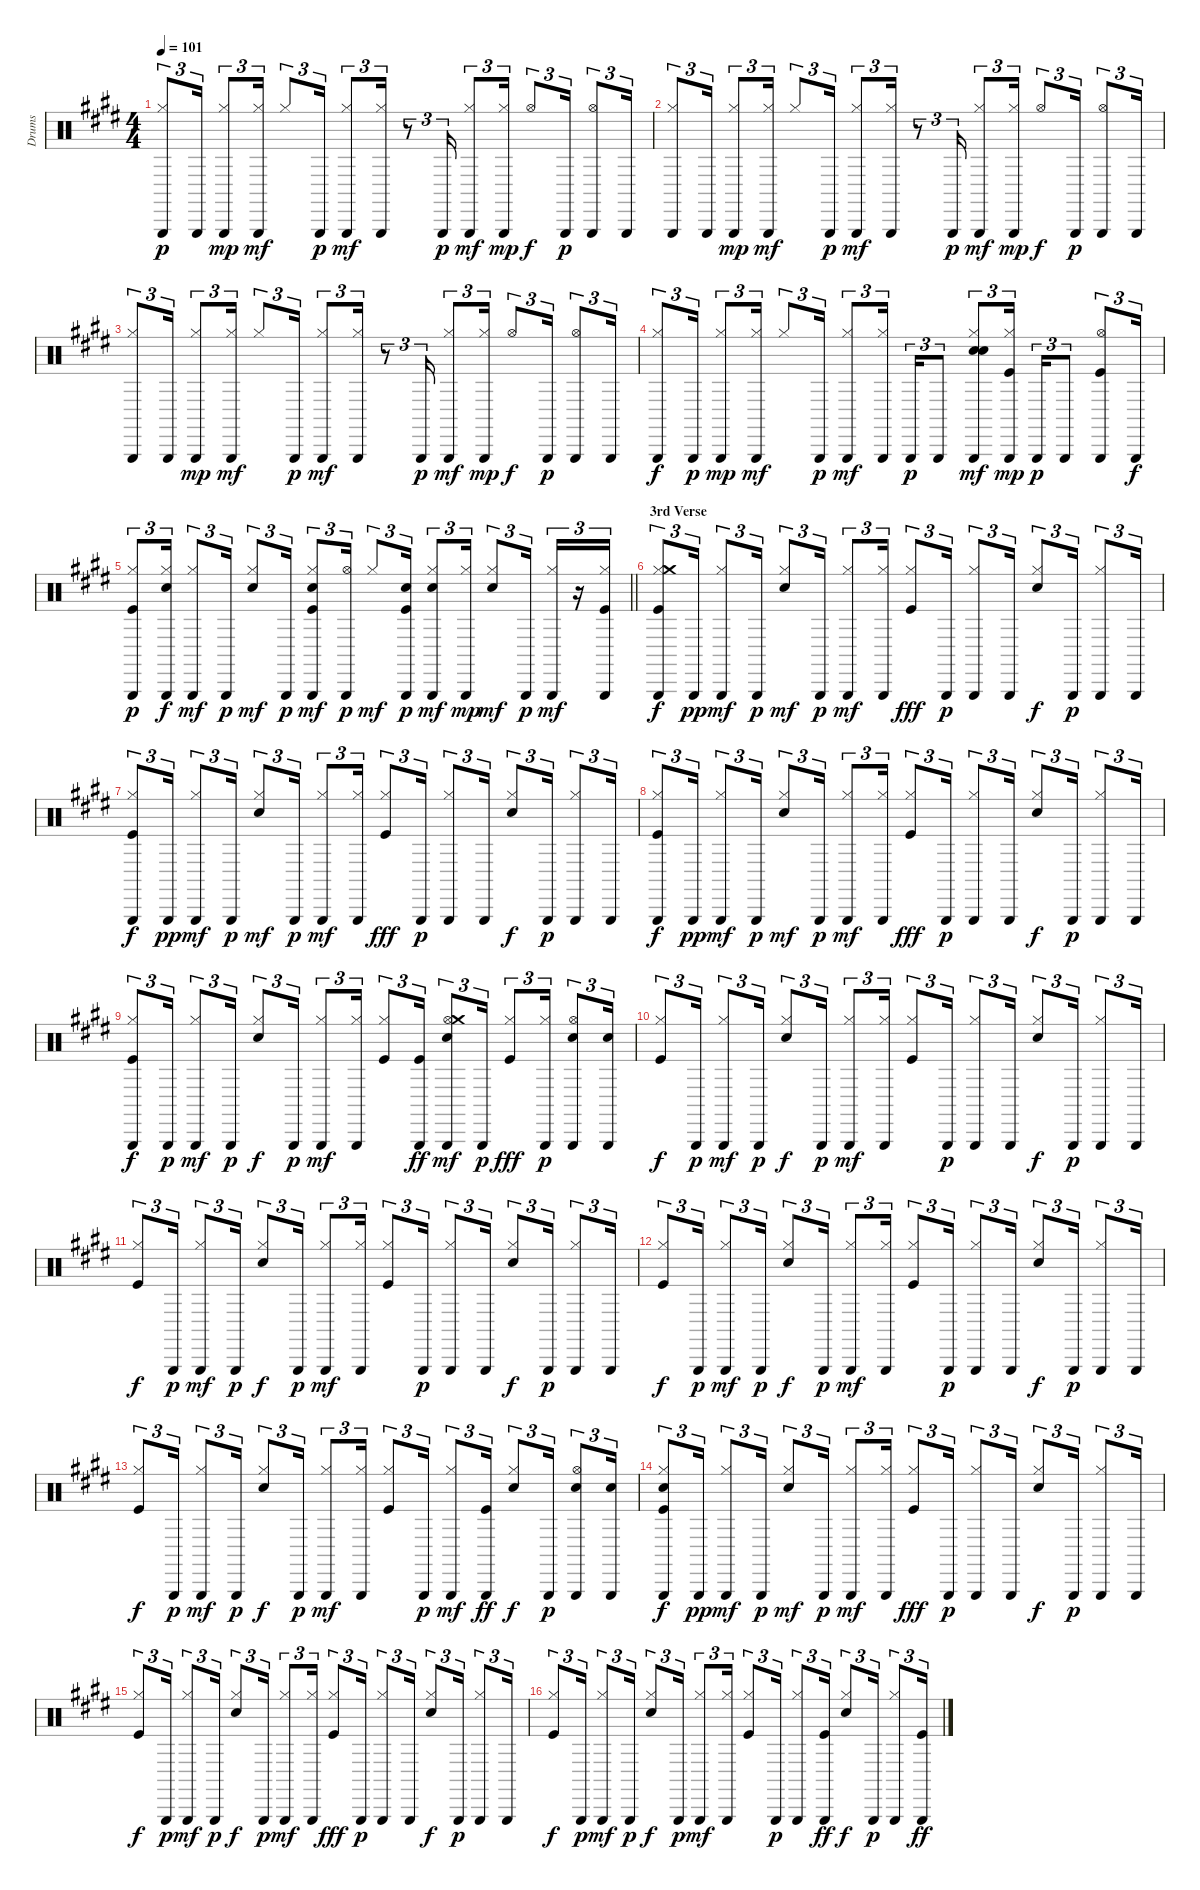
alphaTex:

\track ("Drums" "Drums") {instrument percussion}
\staff {score}
\articulation defaults
\ts (4 4)
\tempo 101
\clef neutral
\ks e
("Triangle (hit)" "Hi-Hat (closed)").8{tu (3 2) dy p} "Triangle (hit)".16{tu (3 2)} ("Triangle (hit)" "Hi-Hat (closed)").8{tu (3 2) dy mp} ("Triangle (hit)" "Hi-Hat (closed)").16{tu (3 2) dy mf} "Hi-Hat (closed)".8{tu (3 2)} "Triangle (hit)".16{tu (3 2) dy p} ("Triangle (hit)" "Hi-Hat (closed)").8{tu (3 2) dy mf} ("Triangle (hit)" "Hi-Hat (closed)").16{tu (3 2)} r.8{tu (3 2)} "Triangle (hit)".16{tu (3 2) dy p} ("Triangle (hit)" "Hi-Hat (closed)").8{tu (3 2) dy mf} ("Triangle (hit)" "Hi-Hat (closed)").16{tu (3 2) dy mp} "Hi-Hat (open)".8{tu (3 2) dy f} "Triangle (hit)".16{tu (3 2) dy p} ("Hi-Hat (open)" "Triangle (hit)").8{tu (3 2)} "Triangle (hit)".16{tu (3 2)} |
("Triangle (hit)" "Hi-Hat (closed)").8{tu (3 2)} "Triangle (hit)".16{tu (3 2)} ("Triangle (hit)" "Hi-Hat (closed)").8{tu (3 2) dy mp} ("Triangle (hit)" "Hi-Hat (closed)").16{tu (3 2) dy mf} "Hi-Hat (closed)".8{tu (3 2)} "Triangle (hit)".16{tu (3 2) dy p} ("Triangle (hit)" "Hi-Hat (closed)").8{tu (3 2) dy mf} ("Triangle (hit)" "Hi-Hat (closed)").16{tu (3 2)} r.8{tu (3 2)} "Triangle (hit)".16{tu (3 2) dy p} ("Triangle (hit)" "Hi-Hat (closed)").8{tu (3 2) dy mf} ("Triangle (hit)" "Hi-Hat (closed)").16{tu (3 2) dy mp} "Hi-Hat (open)".8{tu (3 2) dy f} "Triangle (hit)".16{tu (3 2) dy p} ("Hi-Hat (open)" "Triangle (hit)").8{tu (3 2)} "Triangle (hit)".16{tu (3 2)} |
("Triangle (hit)" "Hi-Hat (closed)").8{tu (3 2)} "Triangle (hit)".16{tu (3 2)} ("Triangle (hit)" "Hi-Hat (closed)").8{tu (3 2) dy mp} ("Triangle (hit)" "Hi-Hat (closed)").16{tu (3 2) dy mf} "Hi-Hat (closed)".8{tu (3 2)} "Triangle (hit)".16{tu (3 2) dy p} ("Triangle (hit)" "Hi-Hat (closed)").8{tu (3 2) dy mf} ("Triangle (hit)" "Hi-Hat (closed)").16{tu (3 2)} r.8{tu (3 2)} "Triangle (hit)".16{tu (3 2) dy p} ("Triangle (hit)" "Hi-Hat (closed)").8{tu (3 2) dy mf} ("Triangle (hit)" "Hi-Hat (closed)").16{tu (3 2) dy mp} "Hi-Hat (open)".8{tu (3 2) dy f} "Triangle (hit)".16{tu (3 2) dy p} ("Hi-Hat (open)" "Triangle (hit)").8{tu (3 2)} "Triangle (hit)".16{tu (3 2)} |
("Triangle (hit)" "Hi-Hat (closed)").8{tu (3 2) dy f} "Triangle (hit)".16{tu (3 2) dy p} ("Triangle (hit)" "Hi-Hat (closed)").8{tu (3 2) dy mp} ("Triangle (hit)" "Hi-Hat (closed)").16{tu (3 2) dy mf} "Hi-Hat (closed)".8{tu (3 2)} "Triangle (hit)".16{tu (3 2) dy p} ("Triangle (hit)" "Hi-Hat (closed)").8{tu (3 2) dy mf} ("Triangle (hit)" "Hi-Hat (closed)").16{tu (3 2)} "Triangle (hit)".16{tu (3 2) dy p} "Triangle (hit)".8{tu (3 2)} ("Electric Snare (hit)" "Electric Snare (hit)" "Triangle (hit)" "Hi-Hat (closed)").8{tu (3 2) dy mf} ("Kick (hit)" "Triangle (hit)" "Hi-Hat (closed)").16{tu (3 2) dy mp} "Triangle (hit)".16{tu (3 2) dy p} "Triangle (hit)".8{tu (3 2)} ("Hi-Hat (open)" "Triangle (hit)" "Kick (hit)").8{tu (3 2)} "Triangle (hit)".16{tu (3 2) dy f} |
\barLineRight lightlight
("Triangle (hit)" "Hi-Hat (closed)" "Kick (hit)").8{tu (3 2) dy p} ("Triangle (hit)" "Hi-Hat (closed)" "Electric Snare (hit)").16{tu (3 2) dy f} ("Triangle (hit)" "Hi-Hat (closed)").8{tu (3 2) dy mf} "Triangle (hit)".16{tu (3 2) dy p} ("Electric Snare (hit)" "Hi-Hat (closed)").8{tu (3 2) dy mf} "Triangle (hit)".16{tu (3 2) dy p} ("Electric Snare (hit)" "Triangle (hit)" "Kick (hit)" "Hi-Hat (closed)").8{tu (3 2) dy mf} ("Hi-Hat (open)" "Triangle (hit)").16{tu (3 2) dy p} "Hi-Hat (closed)".8{tu (3 2) dy mf} ("Electric Snare (hit)" "Triangle (hit)" "Kick (hit)").16{tu (3 2) dy p} ("Electric Snare (hit)" "Triangle (hit)" "Hi-Hat (closed)").8{tu (3 2) dy mf} ("Triangle (hit)" "Hi-Hat (closed)").16{tu (3 2) dy mp} ("Electric Snare (hit)" "Hi-Hat (closed)").8{tu (3 2) dy mf} "Triangle (hit)".16{tu (3 2) dy p} ("Triangle (hit)" "Hi-Hat (closed)").16{tu (3 2) dy mf} r.16{tu (3 2)} ("Triangle (hit)" "Kick (hit)" "Hi-Hat (closed)").16{tu (3 2)} |
\section ("" "3rd Verse")
("Triangle (hit)" "Kick (hit)" "Hi-Hat (closed)" "Crash medium (hit)").8{tu (3 2) dy f} "Triangle (hit)".16{tu (3 2) dy pp} ("Triangle (hit)" "Hi-Hat (closed)").8{tu (3 2) dy mf} "Triangle (hit)".16{tu (3 2) dy p} ("Electric Snare (hit)" "Hi-Hat (closed)").8{tu (3 2) dy mf} "Triangle (hit)".16{tu (3 2) dy p} ("Triangle (hit)" "Hi-Hat (closed)").8{tu (3 2) dy mf} ("Triangle (hit)" "Hi-Hat (closed)").16{tu (3 2)} ("Kick (hit)" "Hi-Hat (closed)").8{tu (3 2) dy fff} "Triangle (hit)".16{tu (3 2) dy p} ("Triangle (hit)" "Hi-Hat (closed)").8{tu (3 2)} "Triangle (hit)".16{tu (3 2)} ("Electric Snare (hit)" "Hi-Hat (closed)").8{tu (3 2) dy f} "Triangle (hit)".16{tu (3 2) dy p} ("Triangle (hit)" "Hi-Hat (closed)").8{tu (3 2)} "Triangle (hit)".16{tu (3 2)} |
("Triangle (hit)" "Kick (hit)" "Hi-Hat (closed)").8{tu (3 2) dy f} "Triangle (hit)".16{tu (3 2) dy pp} ("Triangle (hit)" "Hi-Hat (closed)").8{tu (3 2) dy mf} "Triangle (hit)".16{tu (3 2) dy p} ("Electric Snare (hit)" "Hi-Hat (closed)").8{tu (3 2) dy mf} "Triangle (hit)".16{tu (3 2) dy p} ("Triangle (hit)" "Hi-Hat (closed)").8{tu (3 2) dy mf} ("Triangle (hit)" "Hi-Hat (closed)").16{tu (3 2)} ("Kick (hit)" "Hi-Hat (closed)").8{tu (3 2) dy fff} "Triangle (hit)".16{tu (3 2) dy p} ("Triangle (hit)" "Hi-Hat (closed)").8{tu (3 2)} "Triangle (hit)".16{tu (3 2)} ("Electric Snare (hit)" "Hi-Hat (closed)").8{tu (3 2) dy f} "Triangle (hit)".16{tu (3 2) dy p} ("Triangle (hit)" "Hi-Hat (closed)").8{tu (3 2)} "Triangle (hit)".16{tu (3 2)} |
("Triangle (hit)" "Kick (hit)" "Hi-Hat (closed)").8{tu (3 2) dy f} "Triangle (hit)".16{tu (3 2) dy pp} ("Triangle (hit)" "Hi-Hat (closed)").8{tu (3 2) dy mf} "Triangle (hit)".16{tu (3 2) dy p} ("Electric Snare (hit)" "Hi-Hat (closed)").8{tu (3 2) dy mf} "Triangle (hit)".16{tu (3 2) dy p} ("Triangle (hit)" "Hi-Hat (closed)").8{tu (3 2) dy mf} ("Triangle (hit)" "Hi-Hat (closed)").16{tu (3 2)} ("Kick (hit)" "Hi-Hat (closed)").8{tu (3 2) dy fff} "Triangle (hit)".16{tu (3 2) dy p} ("Triangle (hit)" "Hi-Hat (closed)").8{tu (3 2)} "Triangle (hit)".16{tu (3 2)} ("Electric Snare (hit)" "Hi-Hat (closed)").8{tu (3 2) dy f} "Triangle (hit)".16{tu (3 2) dy p} ("Triangle (hit)" "Hi-Hat (closed)").8{tu (3 2)} "Triangle (hit)".16{tu (3 2)} |
("Triangle (hit)" "Kick (hit)" "Hi-Hat (closed)").8{tu (3 2) dy f} "Triangle (hit)".16{tu (3 2) dy p} ("Triangle (hit)" "Hi-Hat (closed)").8{tu (3 2) dy mf} "Triangle (hit)".16{tu (3 2) dy p} ("Electric Snare (hit)" "Hi-Hat (closed)").8{tu (3 2) dy f} "Triangle (hit)".16{tu (3 2) dy p} ("Triangle (hit)" "Hi-Hat (closed)").8{tu (3 2) dy mf} ("Triangle (hit)" "Hi-Hat (closed)").16{tu (3 2)} ("Kick (hit)" "Hi-Hat (closed)").8{tu (3 2)} ("Triangle (hit)" "Kick (hit)").16{tu (3 2) dy ff} ("Electric Snare (hit)" "Hi-Hat (open)" "Triangle (hit)" "Crash medium (hit)").8{tu (3 2) dy mf} "Triangle (hit)".16{tu (3 2) dy p} ("Kick (hit)" "Hi-Hat (closed)").8{tu (3 2) dy fff} ("Triangle (hit)" "Hi-Hat (closed)").16{tu (3 2) dy p} ("Electric Snare (hit)" "Hi-Hat (open)" "Triangle (hit)").8{tu (3 2)} ("Electric Snare (hit)" "Triangle (hit)").16{tu (3 2)} |
("Kick (hit)" "Hi-Hat (closed)").8{tu (3 2) dy f} "Triangle (hit)".16{tu (3 2) dy p} ("Triangle (hit)" "Hi-Hat (closed)").8{tu (3 2) dy mf} "Triangle (hit)".16{tu (3 2) dy p} ("Electric Snare (hit)" "Hi-Hat (closed)").8{tu (3 2) dy f} "Triangle (hit)".16{tu (3 2) dy p} ("Triangle (hit)" "Hi-Hat (closed)").8{tu (3 2) dy mf} ("Triangle (hit)" "Hi-Hat (closed)").16{tu (3 2)} ("Kick (hit)" "Hi-Hat (closed)").8{tu (3 2)} "Triangle (hit)".16{tu (3 2) dy p} ("Triangle (hit)" "Hi-Hat (closed)").8{tu (3 2)} "Triangle (hit)".16{tu (3 2)} ("Electric Snare (hit)" "Hi-Hat (closed)").8{tu (3 2) dy f} "Triangle (hit)".16{tu (3 2) dy p} ("Triangle (hit)" "Hi-Hat (closed)").8{tu (3 2)} "Triangle (hit)".16{tu (3 2)} |
("Kick (hit)" "Hi-Hat (closed)").8{tu (3 2) dy f} "Triangle (hit)".16{tu (3 2) dy p} ("Triangle (hit)" "Hi-Hat (closed)").8{tu (3 2) dy mf} "Triangle (hit)".16{tu (3 2) dy p} ("Electric Snare (hit)" "Hi-Hat (closed)").8{tu (3 2) dy f} "Triangle (hit)".16{tu (3 2) dy p} ("Triangle (hit)" "Hi-Hat (closed)").8{tu (3 2) dy mf} ("Triangle (hit)" "Hi-Hat (closed)").16{tu (3 2)} ("Kick (hit)" "Hi-Hat (closed)").8{tu (3 2)} "Triangle (hit)".16{tu (3 2) dy p} ("Triangle (hit)" "Hi-Hat (closed)").8{tu (3 2)} "Triangle (hit)".16{tu (3 2)} ("Electric Snare (hit)" "Hi-Hat (closed)").8{tu (3 2) dy f} "Triangle (hit)".16{tu (3 2) dy p} ("Triangle (hit)" "Hi-Hat (closed)").8{tu (3 2)} "Triangle (hit)".16{tu (3 2)} |
("Kick (hit)" "Hi-Hat (closed)").8{tu (3 2) dy f} "Triangle (hit)".16{tu (3 2) dy p} ("Triangle (hit)" "Hi-Hat (closed)").8{tu (3 2) dy mf} "Triangle (hit)".16{tu (3 2) dy p} ("Electric Snare (hit)" "Hi-Hat (closed)").8{tu (3 2) dy f} "Triangle (hit)".16{tu (3 2) dy p} ("Triangle (hit)" "Hi-Hat (closed)").8{tu (3 2) dy mf} ("Triangle (hit)" "Hi-Hat (closed)").16{tu (3 2)} ("Kick (hit)" "Hi-Hat (closed)").8{tu (3 2)} "Triangle (hit)".16{tu (3 2) dy p} ("Triangle (hit)" "Hi-Hat (closed)").8{tu (3 2)} "Triangle (hit)".16{tu (3 2)} ("Electric Snare (hit)" "Hi-Hat (closed)").8{tu (3 2) dy f} "Triangle (hit)".16{tu (3 2) dy p} ("Triangle (hit)" "Hi-Hat (closed)").8{tu (3 2)} "Triangle (hit)".16{tu (3 2)} |
("Kick (hit)" "Hi-Hat (closed)").8{tu (3 2) dy f} "Triangle (hit)".16{tu (3 2) dy p} ("Triangle (hit)" "Hi-Hat (closed)").8{tu (3 2) dy mf} "Triangle (hit)".16{tu (3 2) dy p} ("Electric Snare (hit)" "Hi-Hat (closed)").8{tu (3 2) dy f} "Triangle (hit)".16{tu (3 2) dy p} ("Triangle (hit)" "Hi-Hat (closed)").8{tu (3 2) dy mf} ("Triangle (hit)" "Hi-Hat (closed)").16{tu (3 2)} ("Kick (hit)" "Hi-Hat (closed)").8{tu (3 2)} "Triangle (hit)".16{tu (3 2) dy p} ("Triangle (hit)" "Hi-Hat (closed)").8{tu (3 2) dy mf} ("Triangle (hit)" "Kick (hit)").16{tu (3 2) dy ff} ("Electric Snare (hit)" "Hi-Hat (closed)").8{tu (3 2) dy f} "Triangle (hit)".16{tu (3 2) dy p} ("Electric Snare (hit)" "Hi-Hat (open)" "Triangle (hit)").8{tu (3 2)} ("Electric Snare (hit)" "Triangle (hit)").16{tu (3 2)} |
("Triangle (hit)" "Kick (hit)" "Hi-Hat (closed)" "Snare (hit)").8{tu (3 2) dy f} "Triangle (hit)".16{tu (3 2) dy pp} ("Triangle (hit)" "Hi-Hat (closed)").8{tu (3 2) dy mf} "Triangle (hit)".16{tu (3 2) dy p} ("Electric Snare (hit)" "Hi-Hat (closed)").8{tu (3 2) dy mf} "Triangle (hit)".16{tu (3 2) dy p} ("Triangle (hit)" "Hi-Hat (closed)").8{tu (3 2) dy mf} ("Triangle (hit)" "Hi-Hat (closed)").16{tu (3 2)} ("Kick (hit)" "Hi-Hat (closed)").8{tu (3 2) dy fff} "Triangle (hit)".16{tu (3 2) dy p} ("Triangle (hit)" "Hi-Hat (closed)").8{tu (3 2)} "Triangle (hit)".16{tu (3 2)} ("Electric Snare (hit)" "Hi-Hat (closed)").8{tu (3 2) dy f} "Triangle (hit)".16{tu (3 2) dy p} ("Triangle (hit)" "Hi-Hat (closed)").8{tu (3 2)} "Triangle (hit)".16{tu (3 2)} |
("Kick (hit)" "Hi-Hat (closed)").8{tu (3 2) dy f} "Triangle (hit)".16{tu (3 2) dy p} ("Triangle (hit)" "Hi-Hat (closed)").8{tu (3 2) dy mf} "Triangle (hit)".16{tu (3 2) dy p} ("Electric Snare (hit)" "Hi-Hat (closed)").8{tu (3 2) dy f} "Triangle (hit)".16{tu (3 2) dy p} ("Triangle (hit)" "Hi-Hat (closed)").8{tu (3 2) dy mf} ("Triangle (hit)" "Hi-Hat (closed)").16{tu (3 2)} ("Kick (hit)" "Hi-Hat (closed)").8{tu (3 2) dy fff} "Triangle (hit)".16{tu (3 2) dy p} ("Triangle (hit)" "Hi-Hat (closed)").8{tu (3 2)} "Triangle (hit)".16{tu (3 2)} ("Electric Snare (hit)" "Hi-Hat (closed)").8{tu (3 2) dy f} "Triangle (hit)".16{tu (3 2) dy p} ("Triangle (hit)" "Hi-Hat (closed)").8{tu (3 2)} "Triangle (hit)".16{tu (3 2)} |
("Kick (hit)" "Hi-Hat (closed)").8{tu (3 2) dy f} "Triangle (hit)".16{tu (3 2) dy p} ("Triangle (hit)" "Hi-Hat (closed)").8{tu (3 2) dy mf} "Triangle (hit)".16{tu (3 2) dy p} ("Electric Snare (hit)" "Hi-Hat (closed)").8{tu (3 2) dy f} "Triangle (hit)".16{tu (3 2) dy p} ("Triangle (hit)" "Hi-Hat (closed)").8{tu (3 2) dy mf} ("Triangle (hit)" "Hi-Hat (closed)").16{tu (3 2)} ("Kick (hit)" "Hi-Hat (closed)").8{tu (3 2)} "Triangle (hit)".16{tu (3 2) dy p} ("Triangle (hit)" "Hi-Hat (closed)").8{tu (3 2)} ("Triangle (hit)" "Kick (hit)").16{tu (3 2) dy ff} ("Electric Snare (hit)" "Hi-Hat (closed)").8{tu (3 2) dy f} "Triangle (hit)".16{tu (3 2) dy p} ("Triangle (hit)" "Hi-Hat (closed)").8{tu (3 2)} ("Triangle (hit)" "Kick (hit)").16{tu (3 2) dy ff}
